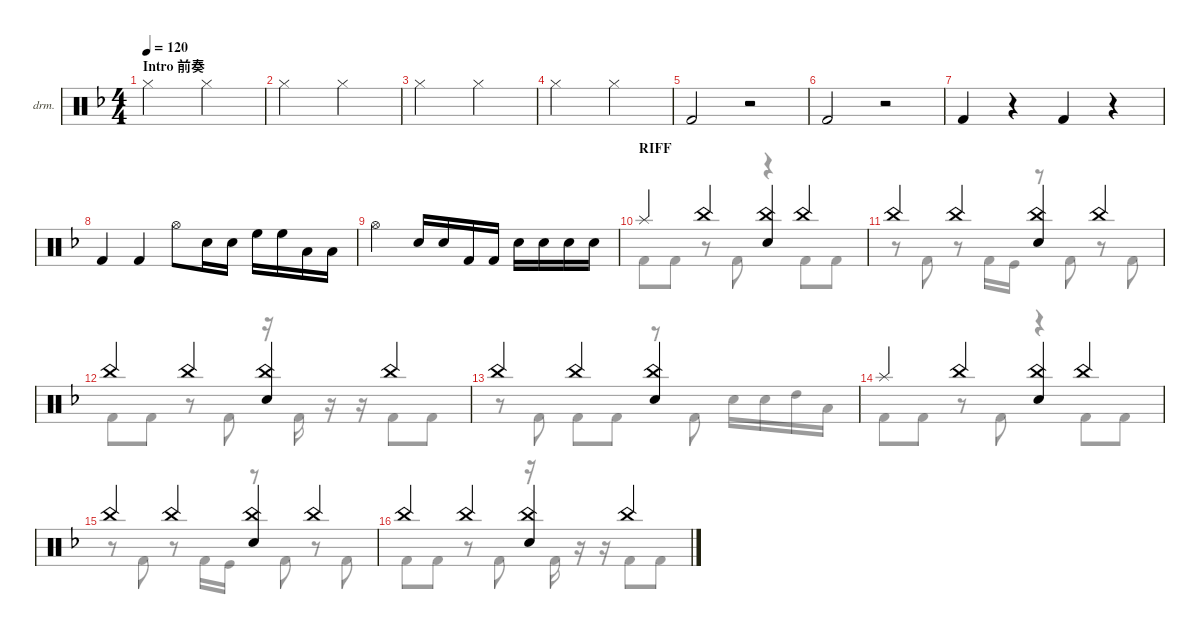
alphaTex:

\defaultSystemsLayout 4
\hideDynamics
\bracketExtendMode nobrackets
\firstSystemTrackNameOrientation horizontal
\track ("Drumkit" "drm.") {defaultSystemsLayout 4 instrument percussion}
\staff {score}
\articulation defaults
\voice
\ts (4 4)
\section ("" "Intro 前奏")
\tempo 120
\clef neutral
\ks dminor "Hi-Hat (closed)"{acc forcenatural}.2{dy mf beam Down} "Hi-Hat (closed)"{acc forcenatural}.2{beam Down}
|
"Hi-Hat (closed)"{acc forcenatural}.2{beam Down} "Hi-Hat (closed)"{acc forcenatural}.2{beam Down} |
"Hi-Hat (closed)"{acc forcenatural}.2{beam Down} "Hi-Hat (closed)"{acc forcenatural}.2{beam Down} |
"Hi-Hat (closed)"{acc forcenatural}.2{beam Down} "Hi-Hat (closed)"{acc forcenatural}.2{beam Down} |
"Kick (hit) 2"{acc forcenatural}.2{beam Up} r.2{beam Down} |
"Kick (hit) 2"{acc forcenatural}.2{beam Up} r.2{beam Down} |
"Kick (hit) 2"{acc forcenatural}.4{beam Up} r.4{beam Down} "Kick (hit) 2"{acc forcenatural}.4{beam Up} r.4{beam Down} |
"Kick (hit) 2"{acc forcenatural}.4{beam Up} "Kick (hit) 2"{acc forcenatural}.4{beam Up} "Hi-Hat (open)"{acc forcenatural}.8{beam Down} "Snare (hit) 2"{acc forcenatural}.16{beam Down} "Snare (hit) 2"{acc forcenatural}.16{beam Down} "High Floor Tom (hit)"{acc forcenatural}.16{beam Down} "High Floor Tom (hit)"{acc forcenatural}.16{beam Down} "Low Tom (hit)"{acc forcenatural}.16{beam Down} "Low Tom (hit)"{acc forcenatural}.16{beam Down} |
"Hi-Hat (open)"{acc forcenatural}.2{beam Down} "Snare (hit) 2"{acc forcenatural}.16{beam Up} "Snare (hit) 2"{acc forcenatural}.16{beam Up} "Kick (hit) 2"{acc forcenatural}.16{beam Up} "Kick (hit) 2"{acc forcenatural}.16{beam Up} "Snare (hit) 2"{acc forcenatural}.16{beam Down} "Snare (hit) 2"{acc forcenatural}.16{beam Down} "Snare (hit) 2"{acc forcenatural}.16{beam Down} "Snare (hit) 2"{acc forcenatural}.16{beam Down} |
\section ("" "RIFF")
"Splash (hit)"{acc forcenatural}.4{beam Up} "China (hit)"{acc forcenatural}.4{beam Up} ("China (hit)"{acc forcenatural} "Snare (hit) 2"{acc forcenatural}).4{beam Up} "China (hit)"{acc forcenatural}.4{beam Up} |
"China (hit)"{acc forcenatural}.4{beam Up} "China (hit)"{acc forcenatural}.4{beam Up} ("China (hit)"{acc forcenatural} "Snare (hit) 2"{acc forcenatural}).4{beam Up} "China (hit)"{acc forcenatural}.4{beam Up} |
"China (hit)"{acc forcenatural}.4{beam Up} "China (hit)"{acc forcenatural}.4{beam Up} ("China (hit)"{acc forcenatural} "Snare (hit) 2"{acc forcenatural}).4{beam Up} "China (hit)"{acc forcenatural}.4{beam Up} |
"China (hit)"{acc forcenatural}.4{beam Up} "China (hit)"{acc forcenatural}.4{beam Up} ("Snare (hit) 2"{acc forcenatural} "China (hit)"{acc forcenatural}).4{beam Up} |
"Splash (hit)"{acc forcenatural}.4{beam Up} "China (hit)"{acc forcenatural}.4{beam Up} ("China (hit)"{acc forcenatural} "Snare (hit) 2"{acc forcenatural}).4{beam Up} "China (hit)"{acc forcenatural}.4{beam Up} |
"China (hit)"{acc forcenatural}.4{beam Up} "China (hit)"{acc forcenatural}.4{beam Up} ("China (hit)"{acc forcenatural} "Snare (hit) 2"{acc forcenatural}).4{beam Up} "China (hit)"{acc forcenatural}.4{beam Up} |
"China (hit)"{acc forcenatural}.4{beam Up} "China (hit)"{acc forcenatural}.4{beam Up} ("China (hit)"{acc forcenatural} "Snare (hit) 2"{acc forcenatural}).4{beam Up} "China (hit)"{acc forcenatural}.4{beam Up}
\voice
\clef neutral
\ottava regular
\simile none
\ks dminor
|
|
|
|
|
|
|
|
|
"Kick (hit) 2"{acc forcenatural}.8{beam Down} "Kick (hit) 2"{acc forcenatural}.8{beam Down} r.8{beam Down} "Kick (hit) 2"{acc forcenatural}.8{beam Down} r.4{beam Down} "Kick (hit) 2"{acc forcenatural}.8{beam Down} "Kick (hit) 2"{acc forcenatural}.8{beam Down} |
r.8{beam Down} "Kick (hit) 2"{acc forcenatural}.8{beam Down} r.8{beam Down} "Kick (hit) 2"{acc forcenatural}.16{beam Down} "Kick (hit)"{acc forcenatural}.16{beam Down} r.8{beam Down} "Kick (hit) 2"{acc forcenatural}.8{beam Down} r.8{beam Down} "Kick (hit) 2"{acc forcenatural}.8{beam Down} |
"Kick (hit) 2"{acc forcenatural}.8{beam Down} "Kick (hit) 2"{acc forcenatural}.8{beam Down} r.8{beam Down} "Kick (hit) 2"{acc forcenatural}.8{beam Down} r.16{beam Down} "Kick (hit) 2"{acc forcenatural}.16{beam Down} r.16{beam Down} r.16{beam Down} "Kick (hit) 2"{acc forcenatural}.8{beam Down} "Kick (hit) 2"{acc forcenatural}.8{beam Down} |
r.8{beam Down} "Kick (hit) 2"{acc forcenatural}.8{beam Down} "Kick (hit) 2"{acc forcenatural}.8{beam Down} "Kick (hit) 2"{acc forcenatural}.8{beam Down} r.8{beam Down} "Kick (hit) 2"{acc forcenatural}.8{beam Down} "Snare (hit) 2"{acc forcenatural}.16{beam Down} "Snare (hit) 2"{acc forcenatural}.16{beam Down} "High Tom (hit)"{acc forcenatural}.16{beam Down} "Low Tom (hit)"{acc forcenatural}.16{beam Down} |
"Kick (hit) 2"{acc forcenatural}.8{beam Down} "Kick (hit) 2"{acc forcenatural}.8{beam Down} r.8{beam Down} "Kick (hit) 2"{acc forcenatural}.8{beam Down} r.4{beam Down} "Kick (hit) 2"{acc forcenatural}.8{beam Down} "Kick (hit) 2"{acc forcenatural}.8{beam Down} |
r.8{beam Down} "Kick (hit) 2"{acc forcenatural}.8{beam Down} r.8{beam Down} "Kick (hit) 2"{acc forcenatural}.16{beam Down} "Kick (hit)"{acc forcenatural}.16{beam Down} r.8{beam Down} "Kick (hit) 2"{acc forcenatural}.8{beam Down} r.8{beam Down} "Kick (hit) 2"{acc forcenatural}.8{beam Down} |
"Kick (hit) 2"{acc forcenatural}.8{beam Down} "Kick (hit) 2"{acc forcenatural}.8{beam Down} r.8{beam Down} "Kick (hit) 2"{acc forcenatural}.8{beam Down} r.16{beam Down} "Kick (hit) 2"{acc forcenatural}.16{beam Down} r.16{beam Down} r.16{beam Down} "Kick (hit) 2"{acc forcenatural}.8{beam Down} "Kick (hit) 2"{acc forcenatural}.8{beam Down}
